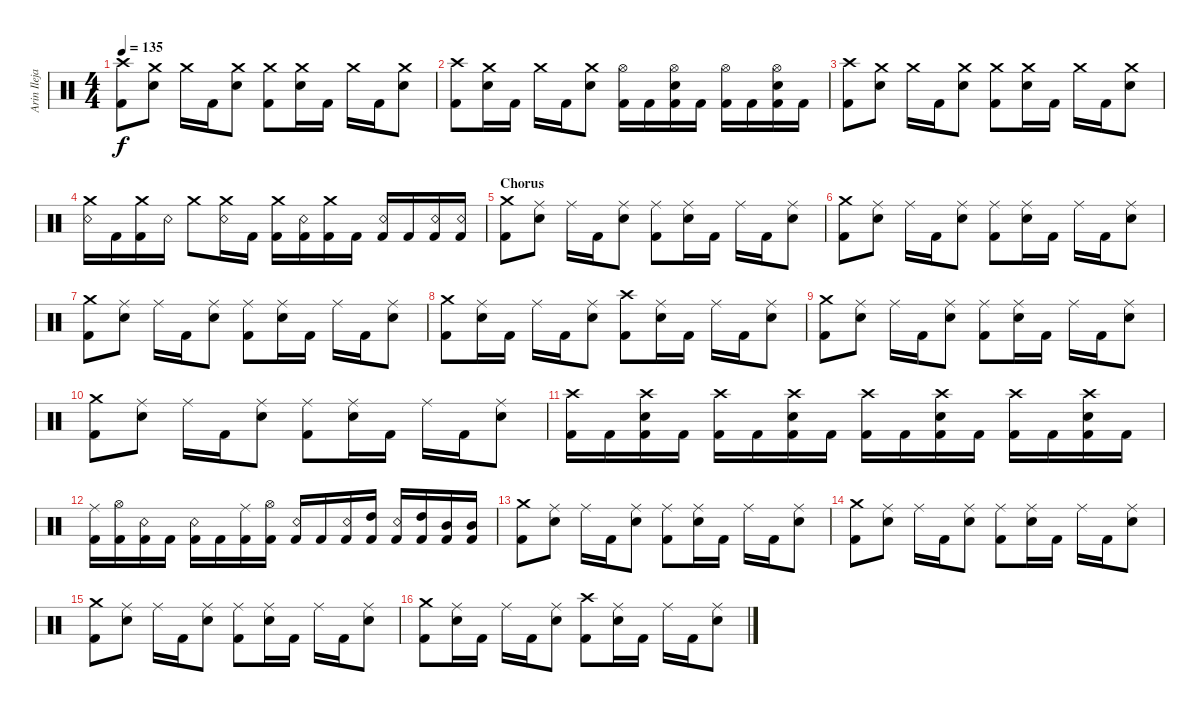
\track ("Arin Ilejay" "Arin Ileja") {instrument percussion}
\staff {score}
\articulation defaults
\ts (4 4)
\tempo 135
\clef neutral
\ks c
("Kick (hit) 2" "Crash high (hit)").8{dy f} ("Crash medium (hit)" "Snare (hit) 2").8 "Crash medium (hit)".16 "Kick (hit) 2".16 ("Snare (hit) 2" "Crash medium (hit)").8 ("Crash medium (hit)" "Kick (hit) 2").8 ("Snare (hit) 2" "Crash medium (hit)").16 "Kick (hit) 2".16 "Crash medium (hit)".16 "Kick (hit) 2".16 ("Snare (hit) 2" "Crash medium (hit)").8 |
("Kick (hit) 2" "Crash high (hit)").8 ("Crash medium (hit)" "Snare (hit) 2").16 "Kick (hit) 2".16 "Crash medium (hit)".16 "Kick (hit) 2".16 ("Snare (hit) 2" "Crash medium (hit)").8 ("Kick (hit) 2" "Hi-Hat (open)").16 "Kick (hit) 2".16 ("Snare (hit) 2" "Kick (hit) 2" "Hi-Hat (open)").16 "Kick (hit) 2".16 ("Kick (hit) 2" "Hi-Hat (open)").16 "Kick (hit) 2".16 ("Snare (hit) 2" "Kick (hit) 2" "Hi-Hat (open)").16 "Kick (hit) 2".16 |
("Kick (hit) 2" "Crash high (hit)").8 ("Crash medium (hit)" "Snare (hit) 2").8 "Crash medium (hit)".16 "Kick (hit) 2".16 ("Snare (hit) 2" "Crash medium (hit)").8 ("Crash medium (hit)" "Kick (hit) 2").8 ("Snare (hit) 2" "Crash medium (hit)").16 "Kick (hit) 2".16 "Crash medium (hit)".16 "Kick (hit) 2".16 ("Snare (hit) 2" "Crash medium (hit)").8 |
("Snare (rim shot)" "Crash medium (hit)").16 "Kick (hit) 2".16 ("Kick (hit) 2" "Crash medium (hit)").16 "Snare (rim shot)".16 "Crash medium (hit)".8 ("Snare (rim shot)" "Crash medium (hit)").16 "Kick (hit) 2".16 ("Kick (hit) 2" "Crash medium (hit)").16 ("Kick (hit) 2" "Snare (rim shot)").16 ("Kick (hit) 2" "Crash medium (hit)").16 "Kick (hit) 2".16 ("Kick (hit) 2" "Snare (rim shot)").16 "Kick (hit) 2".16 ("Kick (hit) 2" "Snare (rim shot)").16 ("Kick (hit) 2" "Snare (rim shot)").16 |
\section ("" "Chorus")
("Kick (hit) 2" "Crash medium (hit)").8 ("Ride (middle)" "Snare (hit) 2").8 "Ride (middle)".16 "Kick (hit) 2".16 ("Ride (middle)" "Snare (hit) 2").8 ("Ride (middle)" "Kick (hit) 2").8 ("Ride (middle)" "Snare (hit) 2").16 "Kick (hit) 2".16 "Ride (middle)".16 "Kick (hit) 2".16 ("Ride (middle)" "Snare (hit) 2").8 |
("Kick (hit) 2" "Crash medium (hit)").8 ("Ride (middle)" "Snare (hit) 2").8 "Ride (middle)".16 "Kick (hit) 2".16 ("Ride (middle)" "Snare (hit) 2").8 ("Ride (middle)" "Kick (hit) 2").8 ("Ride (middle)" "Snare (hit) 2").16 "Kick (hit) 2".16 "Ride (middle)".16 "Kick (hit) 2".16 ("Ride (middle)" "Snare (hit) 2").8 |
("Kick (hit) 2" "Crash medium (hit)").8 ("Ride (middle)" "Snare (hit) 2").8 "Ride (middle)".16 "Kick (hit) 2".16 ("Ride (middle)" "Snare (hit) 2").8 ("Kick (hit) 2" "Ride (middle)").8 ("Ride (middle)" "Snare (hit) 2").16 "Kick (hit) 2".16 "Ride (middle)".16 "Kick (hit) 2".16 ("Ride (middle)" "Snare (hit) 2").8 |
("Kick (hit) 2" "Crash medium (hit)").8 ("Ride (middle)" "Snare (hit) 2").16 "Kick (hit) 2".16 "Ride (middle)".16 "Kick (hit) 2".16 ("Ride (middle)" "Snare (hit) 2").8 ("Kick (hit) 2" "Crash high (hit)").8 ("Ride (middle)" "Snare (hit) 2").16 "Kick (hit) 2".16 "Ride (middle)".16 "Kick (hit) 2".16 ("Ride (middle)" "Snare (hit) 2").8 |
("Kick (hit) 2" "Crash medium (hit)").8 ("Ride (middle)" "Snare (hit) 2").8 "Ride (middle)".16 "Kick (hit) 2".16 ("Ride (middle)" "Snare (hit) 2").8 ("Ride (middle)" "Kick (hit) 2").8 ("Ride (middle)" "Snare (hit) 2").16 "Kick (hit) 2".16 "Ride (middle)".16 "Kick (hit) 2".16 ("Ride (middle)" "Snare (hit) 2").8 |
("Kick (hit) 2" "Crash medium (hit)").8 ("Ride (middle)" "Snare (hit) 2").8 "Ride (middle)".16 "Kick (hit) 2".16 ("Ride (middle)" "Snare (hit) 2").8 ("Kick (hit) 2" "Ride (middle)").8 ("Ride (middle)" "Snare (hit) 2").16 "Kick (hit) 2".16 "Ride (middle)".16 "Kick (hit) 2".16 ("Ride (middle)" "Snare (hit) 2").8 |
("Kick (hit) 2" "Crash high (hit)").16 "Kick (hit) 2".16 ("Kick (hit) 2" "Crash high (hit)" "Snare (hit) 2").16 "Kick (hit) 2".16 ("Kick (hit) 2" "Crash high (hit)").16 "Kick (hit) 2".16 ("Kick (hit) 2" "Crash high (hit)" "Snare (hit) 2").16 "Kick (hit) 2".16 ("Kick (hit) 2" "Crash high (hit)").16 "Kick (hit) 2".16 ("Kick (hit) 2" "Crash high (hit)" "Snare (hit) 2").16 "Kick (hit) 2".16 ("Kick (hit) 2" "Crash high (hit)").16 "Kick (hit) 2".16 ("Kick (hit) 2" "Crash high (hit)" "Snare (hit) 2").16 "Kick (hit) 2".16 |
("Kick (hit) 2" "Ride (middle)").16 ("Kick (hit) 2" "Hi-Hat (open)").16 ("Kick (hit) 2" "Snare (rim shot)").16 "Kick (hit) 2".16 ("Kick (hit) 2" "Snare (rim shot)").16 "Kick (hit) 2".16 ("Kick (hit) 2" "Ride (middle)").16 ("Kick (hit) 2" "Hi-Hat (open)").16 ("Kick (hit) 2" "Snare (rim shot)").16 "Kick (hit) 2".16 ("Kick (hit) 2" "Snare (rim shot)").16 ("Kick (hit) 2" "High Tom (hit)").16 ("Kick (hit) 2" "Snare (rim shot)").16 ("Kick (hit) 2" "High Tom (hit)").16 ("Kick (hit) 2" "Mid Tom (hit)").16 ("Kick (hit) 2" "Mid Tom (hit)").16 |
("Kick (hit) 2" "Crash medium (hit)").8 ("Ride (middle)" "Snare (hit) 2").8 "Ride (middle)".16 "Kick (hit) 2".16 ("Ride (middle)" "Snare (hit) 2").8 ("Ride (middle)" "Kick (hit) 2").8 ("Ride (middle)" "Snare (hit) 2").16 "Kick (hit) 2".16 "Ride (middle)".16 "Kick (hit) 2".16 ("Ride (middle)" "Snare (hit) 2").8 |
("Kick (hit) 2" "Crash medium (hit)").8 ("Ride (middle)" "Snare (hit) 2").8 "Ride (middle)".16 "Kick (hit) 2".16 ("Ride (middle)" "Snare (hit) 2").8 ("Ride (middle)" "Kick (hit) 2").8 ("Ride (middle)" "Snare (hit) 2").16 "Kick (hit) 2".16 "Ride (middle)".16 "Kick (hit) 2".16 ("Ride (middle)" "Snare (hit) 2").8 |
("Kick (hit) 2" "Crash medium (hit)").8 ("Ride (middle)" "Snare (hit) 2").8 "Ride (middle)".16 "Kick (hit) 2".16 ("Ride (middle)" "Snare (hit) 2").8 ("Kick (hit) 2" "Ride (middle)").8 ("Ride (middle)" "Snare (hit) 2").16 "Kick (hit) 2".16 "Ride (middle)".16 "Kick (hit) 2".16 ("Ride (middle)" "Snare (hit) 2").8 |
("Kick (hit) 2" "Crash medium (hit)").8 ("Ride (middle)" "Snare (hit) 2").16 "Kick (hit) 2".16 "Ride (middle)".16 "Kick (hit) 2".16 ("Ride (middle)" "Snare (hit) 2").8 ("Kick (hit) 2" "Crash high (hit)").8 ("Ride (middle)" "Snare (hit) 2").16 "Kick (hit) 2".16 "Ride (middle)".16 "Kick (hit) 2".16 ("Ride (middle)" "Snare (hit) 2").8
